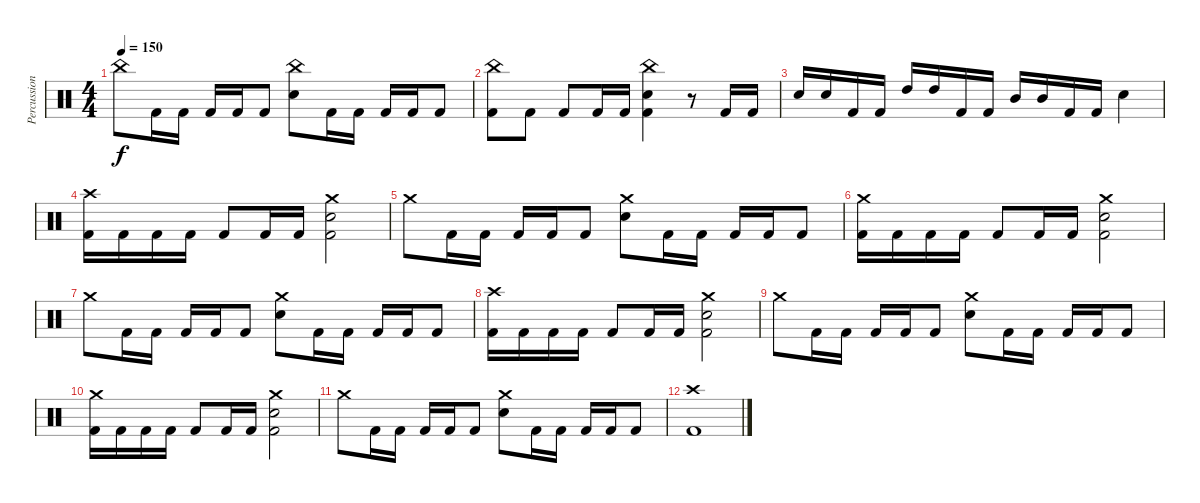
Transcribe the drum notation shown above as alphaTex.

\track ("Percussion" "Percussion") {instrument percussion}
\staff {score}
\articulation defaults
\ts (4 4)
\tempo 150
\clef neutral
\ks c "China (hit)".8{dy f} "Kick (hit) 2".16 "Kick (hit) 2".16 "Kick (hit) 2".16 "Kick (hit) 2".16 "Kick (hit) 2".8
("China (hit)" "Electric Snare (hit)").8 "Kick (hit) 2".16 "Kick (hit) 2".16 "Kick (hit) 2".16 "Kick (hit) 2".16 "Kick (hit) 2".8 |
("China (hit)" "Kick (hit) 2").8 "Kick (hit) 2".8 "Kick (hit) 2".8 "Kick (hit) 2".16 "Kick (hit) 2".16 ("China (hit)" "Electric Snare (hit)" "Kick (hit) 2").4 r.8 "Kick (hit) 2".16 "Kick (hit) 2".16 |
"Electric Snare (hit)".16 "Electric Snare (hit)".16 "Kick (hit) 2".16 "Kick (hit) 2".16 "High Tom (hit)".16 "High Tom (hit)".16 "Kick (hit) 2".16 "Kick (hit) 2".16 "Mid Tom (hit)".16 "Mid Tom (hit)".16 "Kick (hit) 2".16 "Kick (hit) 2".16 "Electric Snare (hit)".4 |
("Crash high (hit)" "Kick (hit) 2").16 "Kick (hit) 2".16 "Kick (hit) 2".16 "Kick (hit) 2".16 "Kick (hit) 2".8 "Kick (hit) 2".16 "Kick (hit) 2".16 ("Crash medium (hit)" "Electric Snare (hit)" "Kick (hit) 2").2 |
"Crash medium (hit)".8 "Kick (hit) 2".16 "Kick (hit) 2".16 "Kick (hit) 2".16 "Kick (hit) 2".16 "Kick (hit) 2".8 ("Crash medium (hit)" "Electric Snare (hit)").8 "Kick (hit) 2".16 "Kick (hit) 2".16 "Kick (hit) 2".16 "Kick (hit) 2".16 "Kick (hit) 2".8 |
("Crash medium (hit)" "Kick (hit) 2").16 "Kick (hit) 2".16 "Kick (hit) 2".16 "Kick (hit) 2".16 "Kick (hit) 2".8 "Kick (hit) 2".16 "Kick (hit) 2".16 ("Crash medium (hit)" "Electric Snare (hit)" "Kick (hit) 2").2 |
"Crash medium (hit)".8 "Kick (hit) 2".16 "Kick (hit) 2".16 "Kick (hit) 2".16 "Kick (hit) 2".16 "Kick (hit) 2".8 ("Crash medium (hit)" "Electric Snare (hit)").8 "Kick (hit) 2".16 "Kick (hit) 2".16 "Kick (hit) 2".16 "Kick (hit) 2".16 "Kick (hit) 2".8 |
("Crash high (hit)" "Kick (hit) 2").16 "Kick (hit) 2".16 "Kick (hit) 2".16 "Kick (hit) 2".16 "Kick (hit) 2".8 "Kick (hit) 2".16 "Kick (hit) 2".16 ("Crash medium (hit)" "Electric Snare (hit)" "Kick (hit) 2").2 |
"Crash medium (hit)".8 "Kick (hit) 2".16 "Kick (hit) 2".16 "Kick (hit) 2".16 "Kick (hit) 2".16 "Kick (hit) 2".8 ("Crash medium (hit)" "Electric Snare (hit)").8 "Kick (hit) 2".16 "Kick (hit) 2".16 "Kick (hit) 2".16 "Kick (hit) 2".16 "Kick (hit) 2".8 |
("Crash medium (hit)" "Kick (hit) 2").16 "Kick (hit) 2".16 "Kick (hit) 2".16 "Kick (hit) 2".16 "Kick (hit) 2".8 "Kick (hit) 2".16 "Kick (hit) 2".16 ("Crash medium (hit)" "Electric Snare (hit)" "Kick (hit) 2").2 |
"Crash medium (hit)".8 "Kick (hit) 2".16 "Kick (hit) 2".16 "Kick (hit) 2".16 "Kick (hit) 2".16 "Kick (hit) 2".8 ("Crash medium (hit)" "Electric Snare (hit)").8 "Kick (hit) 2".16 "Kick (hit) 2".16 "Kick (hit) 2".16 "Kick (hit) 2".16 "Kick (hit) 2".8 |
("Crash high (hit)" "Kick (hit) 2").1
